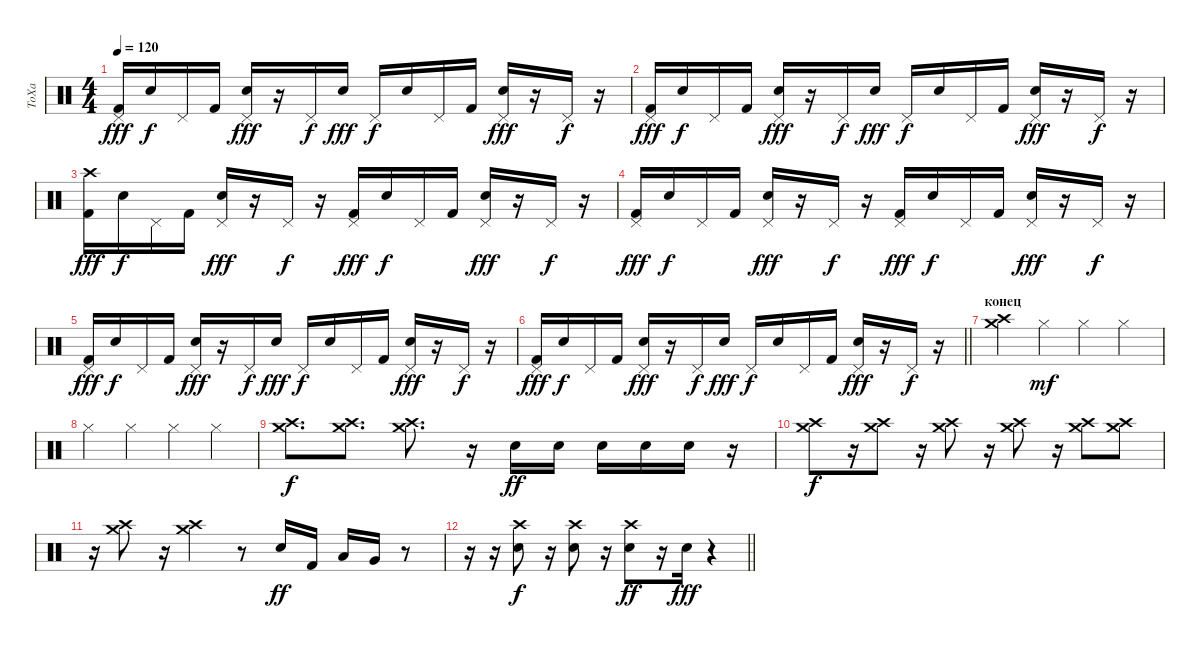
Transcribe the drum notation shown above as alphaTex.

\track ("ТоХа" "ТоХа") {instrument percussion}
\staff {score}
\articulation defaults
\ts (4 4)
\tempo 120
\clef neutral
\ks c
("Pedal Hi-Hat (hit)" "Kick (hit) 2").16{dy fff} "Electric Snare (hit)".16{dy f} "Pedal Hi-Hat (hit)".16 "Kick (hit) 2".16 ("Pedal Hi-Hat (hit)" "Electric Snare (hit)").16{dy fff} r.16 "Pedal Hi-Hat (hit)".16{dy f} "Electric Snare (hit)".16{dy fff} "Pedal Hi-Hat (hit)".16{dy f} "Electric Snare (hit)".16 "Pedal Hi-Hat (hit)".16 "Kick (hit) 2".16 ("Pedal Hi-Hat (hit)" "Electric Snare (hit)").16{dy fff} r.16 "Pedal Hi-Hat (hit)".16{dy f} r.16 |
("Pedal Hi-Hat (hit)" "Kick (hit) 2").16{dy fff} "Electric Snare (hit)".16{dy f} "Pedal Hi-Hat (hit)".16 "Kick (hit) 2".16 ("Pedal Hi-Hat (hit)" "Electric Snare (hit)").16{dy fff} r.16 "Pedal Hi-Hat (hit)".16{dy f} "Electric Snare (hit)".16{dy fff} "Pedal Hi-Hat (hit)".16{dy f} "Electric Snare (hit)".16 "Pedal Hi-Hat (hit)".16 "Kick (hit) 2".16 ("Pedal Hi-Hat (hit)" "Electric Snare (hit)").16{dy fff} r.16 "Pedal Hi-Hat (hit)".16{dy f} r.16 |
("Crash high (hit)" "Kick (hit) 2").16{dy fff} "Electric Snare (hit)".16{dy f} "Pedal Hi-Hat (hit)".16 "Kick (hit) 2".16 ("Pedal Hi-Hat (hit)" "Electric Snare (hit)").16{dy fff} r.16 "Pedal Hi-Hat (hit)".16{dy f} r.16 ("Pedal Hi-Hat (hit)" "Kick (hit) 2").16{dy fff} "Electric Snare (hit)".16{dy f} "Pedal Hi-Hat (hit)".16 "Kick (hit) 2".16 ("Pedal Hi-Hat (hit)" "Electric Snare (hit)").16{dy fff} r.16 "Pedal Hi-Hat (hit)".16{dy f} r.16 |
("Pedal Hi-Hat (hit)" "Kick (hit) 2").16{dy fff} "Electric Snare (hit)".16{dy f} "Pedal Hi-Hat (hit)".16 "Kick (hit) 2".16 ("Pedal Hi-Hat (hit)" "Electric Snare (hit)").16{dy fff} r.16 "Pedal Hi-Hat (hit)".16{dy f} r.16 ("Pedal Hi-Hat (hit)" "Kick (hit) 2").16{dy fff} "Electric Snare (hit)".16{dy f} "Pedal Hi-Hat (hit)".16 "Kick (hit) 2".16 ("Pedal Hi-Hat (hit)" "Electric Snare (hit)").16{dy fff} r.16 "Pedal Hi-Hat (hit)".16{dy f} r.16 |
("Pedal Hi-Hat (hit)" "Kick (hit) 2").16{dy fff} "Electric Snare (hit)".16{dy f} "Pedal Hi-Hat (hit)".16 "Kick (hit) 2".16 ("Pedal Hi-Hat (hit)" "Electric Snare (hit)").16{dy fff} r.16 "Pedal Hi-Hat (hit)".16{dy f} "Electric Snare (hit)".16{dy fff} "Pedal Hi-Hat (hit)".16{dy f} "Electric Snare (hit)".16 "Pedal Hi-Hat (hit)".16 "Kick (hit) 2".16 ("Pedal Hi-Hat (hit)" "Electric Snare (hit)").16{dy fff} r.16 "Pedal Hi-Hat (hit)".16{dy f} r.16 |
\barLineRight lightlight
("Pedal Hi-Hat (hit)" "Kick (hit) 2").16{dy fff} "Electric Snare (hit)".16{dy f} "Pedal Hi-Hat (hit)".16 "Kick (hit) 2".16 ("Pedal Hi-Hat (hit)" "Electric Snare (hit)").16{dy fff} r.16 "Pedal Hi-Hat (hit)".16{dy f} "Electric Snare (hit)".16{dy fff} "Pedal Hi-Hat (hit)".16{dy f} "Electric Snare (hit)".16 "Pedal Hi-Hat (hit)".16 "Kick (hit) 2".16 ("Pedal Hi-Hat (hit)" "Electric Snare (hit)").16{dy fff} r.16 "Pedal Hi-Hat (hit)".16{dy f} r.16 |
\section ("" "конец")
("Crash high (hit)" "Crash medium (hit)").4 "Hi-Hat (closed)".4{dy mf} "Hi-Hat (closed)".4 "Hi-Hat (closed)".4 |
"Hi-Hat (closed)".4 "Hi-Hat (closed)".4 "Hi-Hat (closed)".4 "Hi-Hat (closed)".4 |
("Crash high (hit)" "Crash medium (hit)").8{d dy f} ("Crash high (hit)" "Crash medium (hit)").8{d} ("Crash high (hit)" "Crash medium (hit)").8{d} r.16 "Electric Snare (hit)".16{dy ff} "Electric Snare (hit)".16 "Electric Snare (hit)".16 "Electric Snare (hit)".16 "Electric Snare (hit)".16 r.16 |
("Crash high (hit)" "Crash medium (hit)").8{dy f} r.16 ("Crash high (hit)" "Crash medium (hit)").8 r.16 ("Crash high (hit)" "Crash medium (hit)").8 r.16 ("Crash high (hit)" "Crash medium (hit)").8 r.16 ("Crash high (hit)" "Crash medium (hit)").8 ("Crash high (hit)" "Crash medium (hit)").8 |
r.16 ("Crash high (hit)" "Crash medium (hit)").8 r.16 ("Crash high (hit)" "Crash medium (hit)").4 r.8 "Electric Snare (hit)".16{dy ff} "Kick (hit) 2".16 "Low Floor Tom (hit)".16 "Very Low Tom (hit)".16 r.8 |
\barLineRight lightlight
r.16 r.16 ("Crash high (hit)" "Electric Snare (hit)").8{dy f} r.16 ("Crash high (hit)" "Electric Snare (hit)").8 r.16 ("Crash high (hit)" "Electric Snare (hit)").8{dy ff} r.16 "Electric Snare (hit)".16{dy fff} r.4
